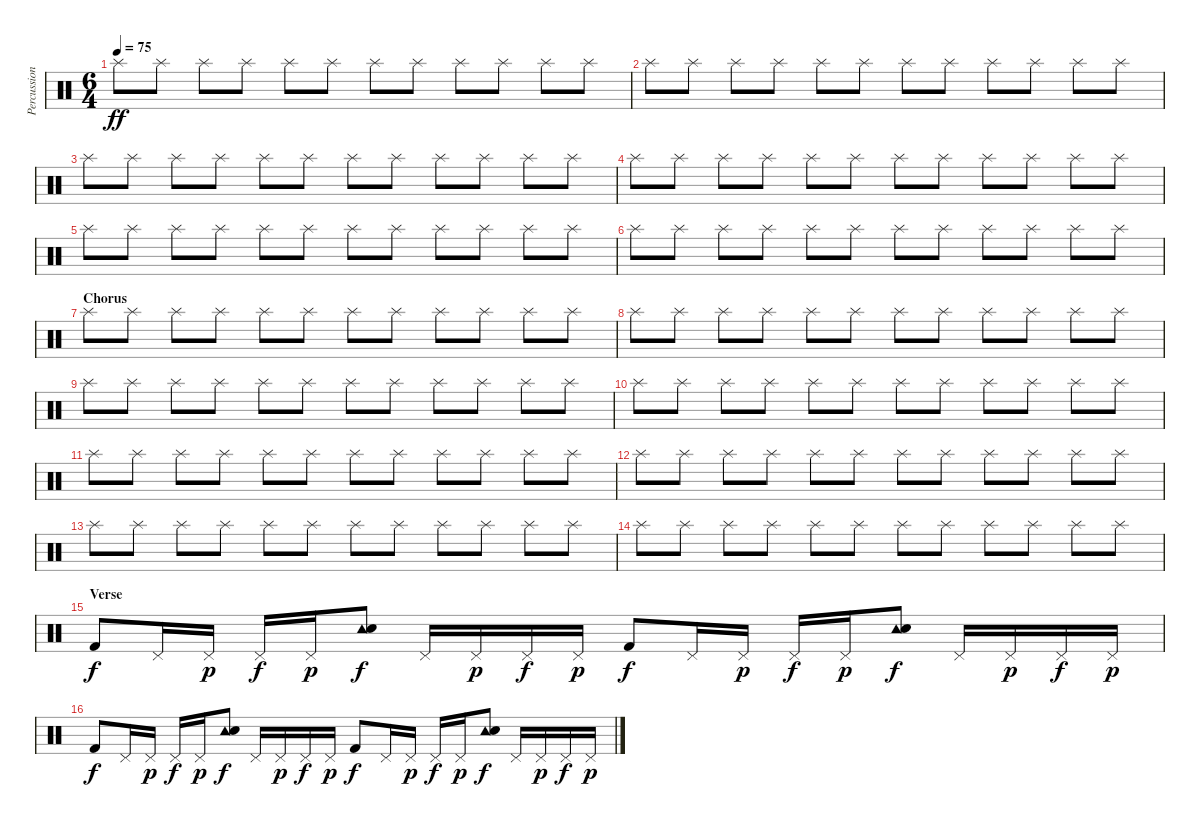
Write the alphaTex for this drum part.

\track ("Percussion" "Percussion") {instrument percussion}
\staff {score}
\articulation defaults
\ts (6 4)
\tempo 75
\clef neutral
\ks c "Splash (hit)".8{dy ff} "Splash (hit)".8 "Splash (hit)".8 "Splash (hit)".8 "Splash (hit)".8 "Splash (hit)".8 "Splash (hit)".8 "Splash (hit)".8 "Splash (hit)".8 "Splash (hit)".8 "Splash (hit)".8 "Splash (hit)".8
|
"Splash (hit)".8 "Splash (hit)".8 "Splash (hit)".8 "Splash (hit)".8 "Splash (hit)".8 "Splash (hit)".8 "Splash (hit)".8 "Splash (hit)".8 "Splash (hit)".8 "Splash (hit)".8 "Splash (hit)".8 "Splash (hit)".8 |
"Splash (hit)".8 "Splash (hit)".8 "Splash (hit)".8 "Splash (hit)".8 "Splash (hit)".8 "Splash (hit)".8 "Splash (hit)".8 "Splash (hit)".8 "Splash (hit)".8 "Splash (hit)".8 "Splash (hit)".8 "Splash (hit)".8 |
"Splash (hit)".8 "Splash (hit)".8 "Splash (hit)".8 "Splash (hit)".8 "Splash (hit)".8 "Splash (hit)".8 "Splash (hit)".8 "Splash (hit)".8 "Splash (hit)".8 "Splash (hit)".8 "Splash (hit)".8 "Splash (hit)".8 |
"Splash (hit)".8 "Splash (hit)".8 "Splash (hit)".8 "Splash (hit)".8 "Splash (hit)".8 "Splash (hit)".8 "Splash (hit)".8 "Splash (hit)".8 "Splash (hit)".8 "Splash (hit)".8 "Splash (hit)".8 "Splash (hit)".8 |
"Splash (hit)".8 "Splash (hit)".8 "Splash (hit)".8 "Splash (hit)".8 "Splash (hit)".8 "Splash (hit)".8 "Splash (hit)".8 "Splash (hit)".8 "Splash (hit)".8 "Splash (hit)".8 "Splash (hit)".8 "Splash (hit)".8 |
\section ("" "Chorus")
"Splash (hit)".8 "Splash (hit)".8 "Splash (hit)".8 "Splash (hit)".8 "Splash (hit)".8 "Splash (hit)".8 "Splash (hit)".8 "Splash (hit)".8 "Splash (hit)".8 "Splash (hit)".8 "Splash (hit)".8 "Splash (hit)".8 |
"Splash (hit)".8 "Splash (hit)".8 "Splash (hit)".8 "Splash (hit)".8 "Splash (hit)".8 "Splash (hit)".8 "Splash (hit)".8 "Splash (hit)".8 "Splash (hit)".8 "Splash (hit)".8 "Splash (hit)".8 "Splash (hit)".8 |
"Splash (hit)".8 "Splash (hit)".8 "Splash (hit)".8 "Splash (hit)".8 "Splash (hit)".8 "Splash (hit)".8 "Splash (hit)".8 "Splash (hit)".8 "Splash (hit)".8 "Splash (hit)".8 "Splash (hit)".8 "Splash (hit)".8 |
"Splash (hit)".8 "Splash (hit)".8 "Splash (hit)".8 "Splash (hit)".8 "Splash (hit)".8 "Splash (hit)".8 "Splash (hit)".8 "Splash (hit)".8 "Splash (hit)".8 "Splash (hit)".8 "Splash (hit)".8 "Splash (hit)".8 |
"Splash (hit)".8 "Splash (hit)".8 "Splash (hit)".8 "Splash (hit)".8 "Splash (hit)".8 "Splash (hit)".8 "Splash (hit)".8 "Splash (hit)".8 "Splash (hit)".8 "Splash (hit)".8 "Splash (hit)".8 "Splash (hit)".8 |
"Splash (hit)".8 "Splash (hit)".8 "Splash (hit)".8 "Splash (hit)".8 "Splash (hit)".8 "Splash (hit)".8 "Splash (hit)".8 "Splash (hit)".8 "Splash (hit)".8 "Splash (hit)".8 "Splash (hit)".8 "Splash (hit)".8 |
"Splash (hit)".8 "Splash (hit)".8 "Splash (hit)".8 "Splash (hit)".8 "Splash (hit)".8 "Splash (hit)".8 "Splash (hit)".8 "Splash (hit)".8 "Splash (hit)".8 "Splash (hit)".8 "Splash (hit)".8 "Splash (hit)".8 |
"Splash (hit)".8 "Splash (hit)".8 "Splash (hit)".8 "Splash (hit)".8 "Splash (hit)".8 "Splash (hit)".8 "Splash (hit)".8 "Splash (hit)".8 "Splash (hit)".8 "Splash (hit)".8 "Splash (hit)".8 "Splash (hit)".8 |
\section ("" "Verse")
"Kick (hit) 2".8{dy f volume 10} "Pedal Hi-Hat (hit)".16 "Pedal Hi-Hat (hit)".16{dy p} "Pedal Hi-Hat (hit)".16{dy f} "Pedal Hi-Hat (hit)".16{dy p} ("Tambourine (hit)" "Snare (hit) 2").8{dy f} "Pedal Hi-Hat (hit)".16 "Pedal Hi-Hat (hit)".16{dy p} "Pedal Hi-Hat (hit)".16{dy f} "Pedal Hi-Hat (hit)".16{dy p} "Kick (hit) 2".8{dy f} "Pedal Hi-Hat (hit)".16 "Pedal Hi-Hat (hit)".16{dy p} "Pedal Hi-Hat (hit)".16{dy f} "Pedal Hi-Hat (hit)".16{dy p} ("Tambourine (hit)" "Snare (hit) 2").8{dy f} "Pedal Hi-Hat (hit)".16 "Pedal Hi-Hat (hit)".16{dy p} "Pedal Hi-Hat (hit)".16{dy f} "Pedal Hi-Hat (hit)".16{dy p} |
"Kick (hit) 2".8{dy f} "Pedal Hi-Hat (hit)".16 "Pedal Hi-Hat (hit)".16{dy p} "Pedal Hi-Hat (hit)".16{dy f} "Pedal Hi-Hat (hit)".16{dy p} ("Tambourine (hit)" "Snare (hit) 2").8{dy f} "Pedal Hi-Hat (hit)".16 "Pedal Hi-Hat (hit)".16{dy p} "Pedal Hi-Hat (hit)".16{dy f} "Pedal Hi-Hat (hit)".16{dy p} "Kick (hit) 2".8{dy f} "Pedal Hi-Hat (hit)".16 "Pedal Hi-Hat (hit)".16{dy p} "Pedal Hi-Hat (hit)".16{dy f} "Pedal Hi-Hat (hit)".16{dy p} ("Tambourine (hit)" "Snare (hit) 2").8{dy f} "Pedal Hi-Hat (hit)".16 "Pedal Hi-Hat (hit)".16{dy p} "Pedal Hi-Hat (hit)".16{dy f} "Pedal Hi-Hat (hit)".16{dy p}
